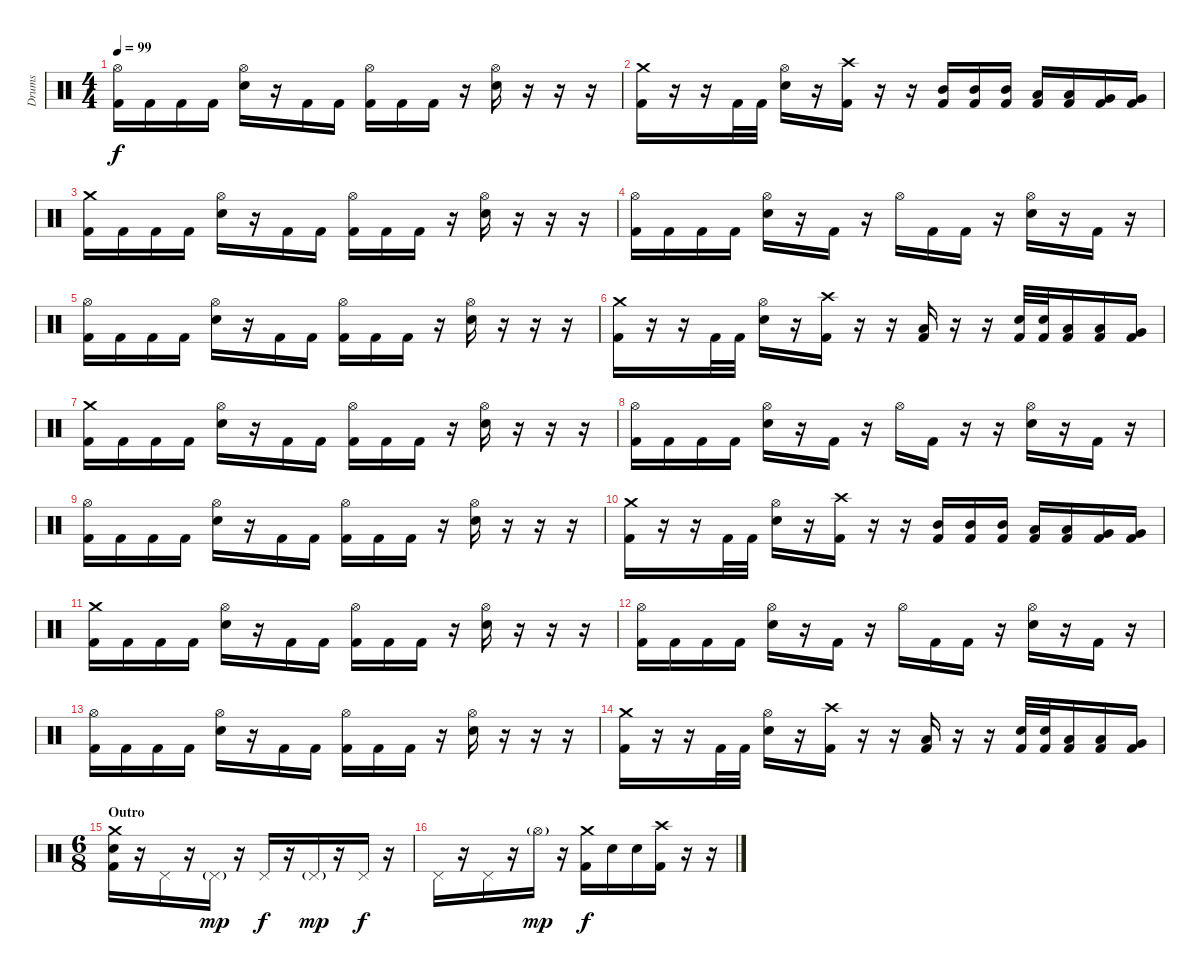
\track ("Drums" "Drums") {instrument percussion}
\staff {score}
\articulation defaults
\ts (4 4)
\tempo 99
\clef neutral
\ks c
("Hi-Hat (open)" "Kick (hit) 2").16{dy f} "Kick (hit) 2".16 "Kick (hit) 2".16 "Kick (hit) 2".16 ("Hi-Hat (open)" "Electric Snare (hit)").16 r.16 "Kick (hit) 2".16 "Kick (hit) 2".16 ("Hi-Hat (open)" "Kick (hit) 2").16 "Kick (hit) 2".16 "Kick (hit) 2".16 r.16 ("Hi-Hat (open)" "Electric Snare (hit)").16 r.16 r.16 r.16 |
("Crash medium (hit)" "Kick (hit) 2").16 r.16 r.16 "Kick (hit) 2".32 "Kick (hit) 2".32 ("Hi-Hat (open)" "Electric Snare (hit)").16 r.16 ("Crash high (hit)" "Kick (hit) 2").16 r.16 r.16 ("Mid Tom (hit)" "Kick (hit) 2").16 ("Mid Tom (hit)" "Kick (hit) 2").16 ("Mid Tom (hit)" "Kick (hit) 2").16 ("Low Tom (hit)" "Kick (hit) 2").16 ("Low Tom (hit)" "Kick (hit) 2").16 ("Very Low Tom (hit)" "Kick (hit) 2").16 ("Very Low Tom (hit)" "Kick (hit) 2").16 |
("Crash medium (hit)" "Kick (hit) 2").16 "Kick (hit) 2".16 "Kick (hit) 2".16 "Kick (hit) 2".16 ("Hi-Hat (open)" "Electric Snare (hit)").16 r.16 "Kick (hit) 2".16 "Kick (hit) 2".16 ("Hi-Hat (open)" "Kick (hit) 2").16 "Kick (hit) 2".16 "Kick (hit) 2".16 r.16 ("Hi-Hat (open)" "Electric Snare (hit)").16 r.16 r.16 r.16 |
("Hi-Hat (open)" "Kick (hit) 2").16 "Kick (hit) 2".16 "Kick (hit) 2".16 "Kick (hit) 2".16 ("Hi-Hat (open)" "Electric Snare (hit)").16 r.16 "Kick (hit) 2".16 r.16 "Hi-Hat (open)".16 "Kick (hit) 2".16 "Kick (hit) 2".16 r.16 ("Hi-Hat (open)" "Electric Snare (hit)").16 r.16 "Kick (hit) 2".16 r.16 |
("Hi-Hat (open)" "Kick (hit) 2").16 "Kick (hit) 2".16 "Kick (hit) 2".16 "Kick (hit) 2".16 ("Hi-Hat (open)" "Electric Snare (hit)").16 r.16 "Kick (hit) 2".16 "Kick (hit) 2".16 ("Hi-Hat (open)" "Kick (hit) 2").16 "Kick (hit) 2".16 "Kick (hit) 2".16 r.16 ("Hi-Hat (open)" "Electric Snare (hit)").16 r.16 r.16 r.16 |
("Crash medium (hit)" "Kick (hit) 2").16 r.16 r.16 "Kick (hit) 2".32 "Kick (hit) 2".32 ("Hi-Hat (open)" "Electric Snare (hit)").16 r.16 ("Crash high (hit)" "Kick (hit) 2").16 r.16 r.16 ("Low Tom (hit)" "Kick (hit) 2").16 r.16 r.16 ("Electric Snare (hit)" "Kick (hit) 2").32 ("Electric Snare (hit)" "Kick (hit) 2").32 ("Low Tom (hit)" "Kick (hit) 2").16 ("Low Tom (hit)" "Kick (hit) 2").16 ("Very Low Tom (hit)" "Kick (hit) 2").16 |
("Crash medium (hit)" "Kick (hit) 2").16 "Kick (hit) 2".16 "Kick (hit) 2".16 "Kick (hit) 2".16 ("Hi-Hat (open)" "Electric Snare (hit)").16 r.16 "Kick (hit) 2".16 "Kick (hit) 2".16 ("Hi-Hat (open)" "Kick (hit) 2").16 "Kick (hit) 2".16 "Kick (hit) 2".16 r.16 ("Hi-Hat (open)" "Electric Snare (hit)").16 r.16 r.16 r.16 |
("Hi-Hat (open)" "Kick (hit) 2").16 "Kick (hit) 2".16 "Kick (hit) 2".16 "Kick (hit) 2".16 ("Hi-Hat (open)" "Electric Snare (hit)").16 r.16 "Kick (hit) 2".16 r.16 "Hi-Hat (open)".16 "Kick (hit) 2".16 r.16 r.16 ("Hi-Hat (open)" "Electric Snare (hit)").16 r.16 "Kick (hit) 2".16 r.16 |
("Hi-Hat (open)" "Kick (hit) 2").16 "Kick (hit) 2".16 "Kick (hit) 2".16 "Kick (hit) 2".16 ("Hi-Hat (open)" "Electric Snare (hit)").16 r.16 "Kick (hit) 2".16 "Kick (hit) 2".16 ("Hi-Hat (open)" "Kick (hit) 2").16 "Kick (hit) 2".16 "Kick (hit) 2".16 r.16 ("Hi-Hat (open)" "Electric Snare (hit)").16 r.16 r.16 r.16 |
("Crash medium (hit)" "Kick (hit) 2").16 r.16 r.16 "Kick (hit) 2".32 "Kick (hit) 2".32 ("Hi-Hat (open)" "Electric Snare (hit)").16 r.16 ("Crash high (hit)" "Kick (hit) 2").16 r.16 r.16 ("Mid Tom (hit)" "Kick (hit) 2").16 ("Mid Tom (hit)" "Kick (hit) 2").16 ("Mid Tom (hit)" "Kick (hit) 2").16 ("Low Tom (hit)" "Kick (hit) 2").16 ("Low Tom (hit)" "Kick (hit) 2").16 ("Very Low Tom (hit)" "Kick (hit) 2").16 ("Very Low Tom (hit)" "Kick (hit) 2").16 |
("Crash medium (hit)" "Kick (hit) 2").16 "Kick (hit) 2".16 "Kick (hit) 2".16 "Kick (hit) 2".16 ("Hi-Hat (open)" "Electric Snare (hit)").16 r.16 "Kick (hit) 2".16 "Kick (hit) 2".16 ("Hi-Hat (open)" "Kick (hit) 2").16 "Kick (hit) 2".16 "Kick (hit) 2".16 r.16 ("Hi-Hat (open)" "Electric Snare (hit)").16 r.16 r.16 r.16 |
("Hi-Hat (open)" "Kick (hit) 2").16 "Kick (hit) 2".16 "Kick (hit) 2".16 "Kick (hit) 2".16 ("Hi-Hat (open)" "Electric Snare (hit)").16 r.16 "Kick (hit) 2".16 r.16 "Hi-Hat (open)".16 "Kick (hit) 2".16 "Kick (hit) 2".16 r.16 ("Hi-Hat (open)" "Electric Snare (hit)").16 r.16 "Kick (hit) 2".16 r.16 |
("Hi-Hat (open)" "Kick (hit) 2").16 "Kick (hit) 2".16 "Kick (hit) 2".16 "Kick (hit) 2".16 ("Hi-Hat (open)" "Electric Snare (hit)").16 r.16 "Kick (hit) 2".16 "Kick (hit) 2".16 ("Hi-Hat (open)" "Kick (hit) 2").16 "Kick (hit) 2".16 "Kick (hit) 2".16 r.16 ("Hi-Hat (open)" "Electric Snare (hit)").16 r.16 r.16 r.16 |
("Crash medium (hit)" "Kick (hit) 2").16 r.16 r.16 "Kick (hit) 2".32 "Kick (hit) 2".32 ("Hi-Hat (open)" "Electric Snare (hit)").16 r.16 ("Crash high (hit)" "Kick (hit) 2").16 r.16 r.16 ("Low Tom (hit)" "Kick (hit) 2").16 r.16 r.16 ("Electric Snare (hit)" "Kick (hit) 2").32 ("Electric Snare (hit)" "Kick (hit) 2").32 ("Low Tom (hit)" "Kick (hit) 2").16 ("Low Tom (hit)" "Kick (hit) 2").16 ("Very Low Tom (hit)" "Kick (hit) 2").16 |
\ts (6 8)
\section ("" "Outro")
("Crash medium (hit)" "Electric Snare (hit)" "Kick (hit) 2").16 r.16 "Pedal Hi-Hat (hit)".16 r.16 "Pedal Hi-Hat (hit)"{g}.16{dy mp} r.16 "Pedal Hi-Hat (hit)".16{dy f} r.16 "Pedal Hi-Hat (hit)"{g}.16{dy mp} r.16 "Pedal Hi-Hat (hit)".16{dy f} r.16 |
"Pedal Hi-Hat (hit)".16 r.16 "Pedal Hi-Hat (hit)".16 r.16 "Hi-Hat (open)"{g}.16{dy mp} r.16 ("Crash medium (hit)" "Kick (hit) 2").16{dy f} "Electric Snare (hit)".16 "Electric Snare (hit)".16 ("Crash high (hit)" "Kick (hit) 2").16 r.16 r.16
